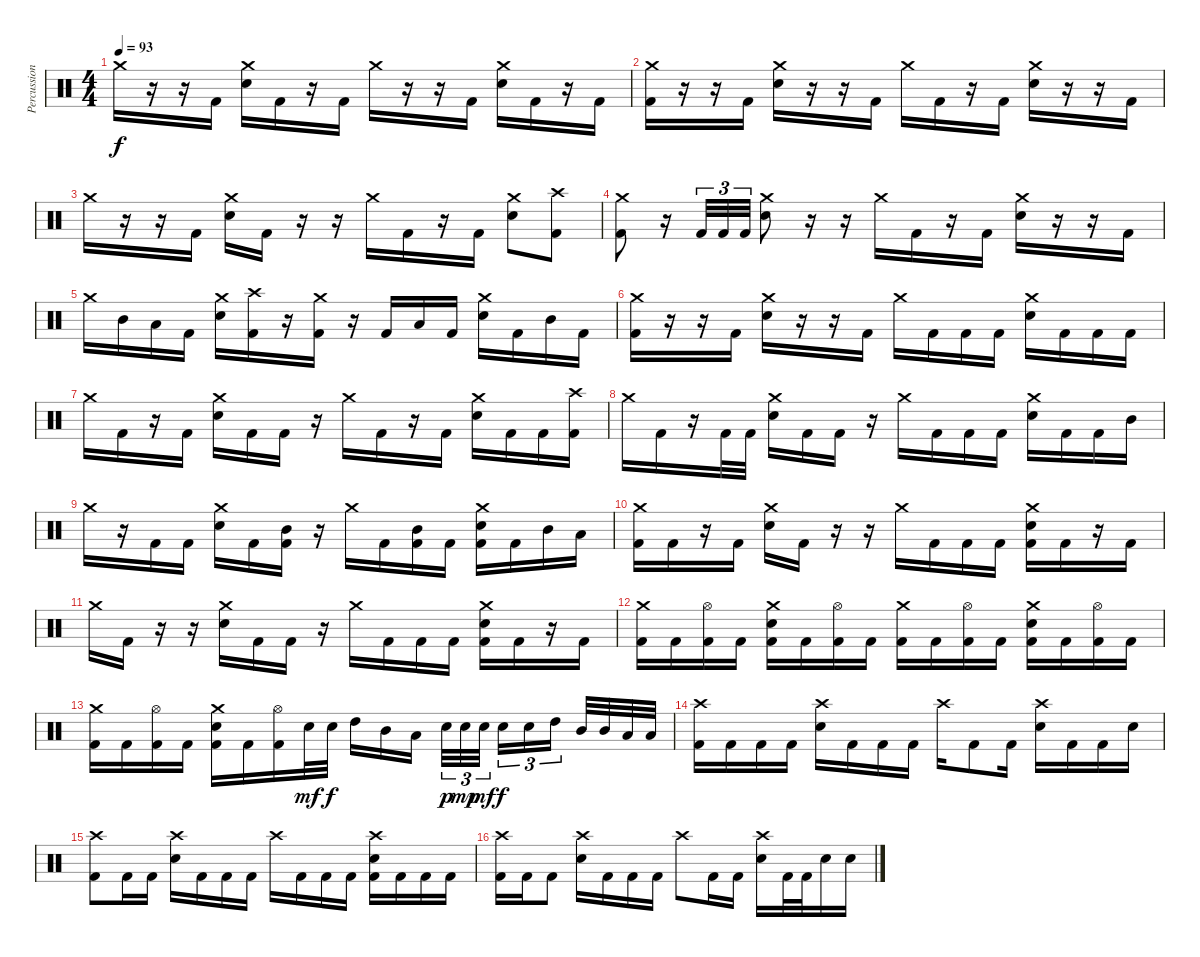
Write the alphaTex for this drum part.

\track ("Percussions" "Percussion") {instrument percussion}
\staff {score}
\articulation defaults
\ts (4 4)
\tempo 93
\clef neutral
\ks c "Crash medium (hit)".16{dy f}
r.16 r.16 "Kick (hit) 2".16 ("Crash medium (hit)" "Electric Snare (hit)").16 "Kick (hit) 2".16 r.16 "Kick (hit) 2".16 "Crash medium (hit)".16 r.16 r.16 "Kick (hit) 2".16 ("Crash medium (hit)" "Electric Snare (hit)").16 "Kick (hit) 2".16 r.16 "Kick (hit) 2".16 |
("Crash medium (hit)" "Kick (hit) 2").16 r.16 r.16 "Kick (hit) 2".16 ("Crash medium (hit)" "Electric Snare (hit)").16 r.16 r.16 "Kick (hit) 2".16 "Crash medium (hit)".16 "Kick (hit) 2".16 r.16 "Kick (hit) 2".16 ("Crash medium (hit)" "Electric Snare (hit)").16 r.16 r.16 "Kick (hit) 2".16 |
"Crash medium (hit)".16 r.16 r.16 "Kick (hit) 2".16 ("Crash medium (hit)" "Electric Snare (hit)").16 "Kick (hit) 2".16 r.16 r.16 "Crash medium (hit)".16 "Kick (hit) 2".16 r.16 "Kick (hit) 2".16 ("Crash medium (hit)" "Electric Snare (hit)").8 ("Crash high (hit)" "Kick (hit) 2").8 |
("Crash medium (hit)" "Kick (hit) 2").8 r.16 "Kick (hit) 2".32{tu (3 2)} "Kick (hit) 2".32{tu (3 2)} "Kick (hit) 2".32{tu (3 2)} ("Crash medium (hit)" "Electric Snare (hit)").8 r.16 r.16 "Crash medium (hit)".16 "Kick (hit) 2".16 r.16 "Kick (hit) 2".16 ("Crash medium (hit)" "Electric Snare (hit)").16 r.16 r.16 "Kick (hit) 2".16 |
"Crash medium (hit)".16 "Mid Tom (hit)".16 "Low Tom (hit)".16 "Kick (hit) 2".16 ("Crash medium (hit)" "Electric Snare (hit)").16 ("Crash high (hit)" "Kick (hit) 2").16 r.16 ("Crash medium (hit)" "Kick (hit) 2").16 r.16 "Kick (hit) 2".16 "Low Tom (hit)".16 "Kick (hit) 2".16 ("Crash medium (hit)" "Electric Snare (hit)").16 "Kick (hit) 2".16 "Mid Tom (hit)".16 "Kick (hit) 2".16 |
("Crash medium (hit)" "Kick (hit) 2").16 r.16 r.16 "Kick (hit) 2".16 ("Crash medium (hit)" "Electric Snare (hit)").16 r.16 r.16 "Kick (hit) 2".16 "Crash medium (hit)".16 "Kick (hit) 2".16 "Kick (hit) 2".16 "Kick (hit) 2".16 ("Crash medium (hit)" "Electric Snare (hit)").16 "Kick (hit) 2".16 "Kick (hit) 2".16 "Kick (hit) 2".16 |
"Crash medium (hit)".16 "Kick (hit) 2".16 r.16 "Kick (hit) 2".16 ("Crash medium (hit)" "Electric Snare (hit)").16 "Kick (hit) 2".16 "Kick (hit) 2".16 r.16 "Crash medium (hit)".16 "Kick (hit) 2".16 r.16 "Kick (hit) 2".16 ("Crash medium (hit)" "Electric Snare (hit)").16 "Kick (hit) 2".16 "Kick (hit) 2".16 ("Crash high (hit)" "Kick (hit) 2").16 |
"Crash medium (hit)".16 "Kick (hit) 2".16 r.16 "Kick (hit) 2".32 "Kick (hit) 2".32 ("Crash medium (hit)" "Electric Snare (hit)").16 "Kick (hit) 2".16 "Kick (hit) 2".16 r.16 "Crash medium (hit)".16 "Kick (hit) 2".16 "Kick (hit) 2".16 "Kick (hit) 2".16 ("Crash medium (hit)" "Electric Snare (hit)").16 "Kick (hit) 2".16 "Kick (hit) 2".16 "Mid Tom (hit)".16 |
"Crash medium (hit)".16 r.16 "Kick (hit) 2".16 "Kick (hit) 2".16 ("Crash medium (hit)" "Electric Snare (hit)").16 "Kick (hit) 2".16 ("Mid Tom (hit)" "Kick (hit) 2").16 r.16 "Crash medium (hit)".16 "Kick (hit) 2".16 ("Mid Tom (hit)" "Kick (hit) 2").16 "Kick (hit) 2".16 ("Crash medium (hit)" "Electric Snare (hit)" "Kick (hit) 2").16 "Kick (hit) 2".16 "Mid Tom (hit)".16 "Low Tom (hit)".16 |
("Crash medium (hit)" "Kick (hit) 2").16 "Kick (hit) 2".16 r.16 "Kick (hit) 2".16 ("Crash medium (hit)" "Electric Snare (hit)").16 "Kick (hit) 2".16 r.16 r.16 "Crash medium (hit)".16 "Kick (hit) 2".16 "Kick (hit) 2".16 "Kick (hit) 2".16 ("Crash medium (hit)" "Electric Snare (hit)" "Kick (hit) 2").16 "Kick (hit) 2".16 r.16 "Kick (hit) 2".16 |
"Crash medium (hit)".16 "Kick (hit) 2".16 r.16 r.16 ("Crash medium (hit)" "Electric Snare (hit)").16 "Kick (hit) 2".16 "Kick (hit) 2".16 r.16 "Crash medium (hit)".16 "Kick (hit) 2".16 "Kick (hit) 2".16 "Kick (hit) 2".16 ("Crash medium (hit)" "Electric Snare (hit)" "Kick (hit) 2").16 "Kick (hit) 2".16 r.16 "Kick (hit) 2".16 |
("Crash medium (hit)" "Kick (hit) 2").16 "Kick (hit) 2".16 ("Hi-Hat (open)" "Kick (hit) 2").16 "Kick (hit) 2".16 ("Crash medium (hit)" "Electric Snare (hit)" "Kick (hit) 2").16 "Kick (hit) 2".16 ("Hi-Hat (open)" "Kick (hit) 2").16 "Kick (hit) 2".16 ("Crash medium (hit)" "Kick (hit) 2").16 "Kick (hit) 2".16 ("Hi-Hat (open)" "Kick (hit) 2").16 "Kick (hit) 2".16 ("Crash medium (hit)" "Electric Snare (hit)" "Kick (hit) 2").16 "Kick (hit) 2".16 ("Hi-Hat (open)" "Kick (hit) 2").16 "Kick (hit) 2".16 |
("Crash medium (hit)" "Kick (hit) 2").16 "Kick (hit) 2".16 ("Hi-Hat (open)" "Kick (hit) 2").16 "Kick (hit) 2".16 ("Crash medium (hit)" "Electric Snare (hit)" "Kick (hit) 2").16 "Kick (hit) 2".16 ("Hi-Hat (open)" "Kick (hit) 2").16 "Electric Snare (hit)".32{dy mf} "Electric Snare (hit)".32{dy f} "High Tom (hit)".16 "Mid Tom (hit)".16 "Low Tom (hit)".16 "Electric Snare (hit)".32{tu (3 2) dy p} "Electric Snare (hit)".32{tu (3 2) dy mp} "Electric Snare (hit)".32{tu (3 2) dy mf} "Electric Snare (hit)".16{tu (3 2) dy f} "Electric Snare (hit)".16{tu (3 2)} "High Tom (hit)".16{tu (3 2)} "Mid Tom (hit)".32 "Mid Tom (hit)".32 "Low Tom (hit)".32 "Low Tom (hit)".32 |
("Crash high (hit)" "Kick (hit) 2").16 "Kick (hit) 2".16 "Kick (hit) 2".16 "Kick (hit) 2".16 ("Crash high (hit)" "Electric Snare (hit)").16 "Kick (hit) 2".16 "Kick (hit) 2".16 "Kick (hit) 2".16 "Crash high (hit)".16 "Kick (hit) 2".8 "Kick (hit) 2".16 ("Crash high (hit)" "Electric Snare (hit)").16 "Kick (hit) 2".16 "Kick (hit) 2".16 "Electric Snare (hit)".16 |
("Crash high (hit)" "Kick (hit) 2").8 "Kick (hit) 2".16 "Kick (hit) 2".16 ("Crash high (hit)" "Electric Snare (hit)").16 "Kick (hit) 2".16 "Kick (hit) 2".16 "Kick (hit) 2".16 "Crash high (hit)".16 "Kick (hit) 2".16 "Kick (hit) 2".16 "Kick (hit) 2".16 ("Crash high (hit)" "Electric Snare (hit)" "Kick (hit) 2").16 "Kick (hit) 2".16 "Kick (hit) 2".16 "Kick (hit) 2".16 |
("Crash high (hit)" "Kick (hit) 2").16 "Kick (hit) 2".16 "Kick (hit) 2".8 ("Crash high (hit)" "Electric Snare (hit)").16 "Kick (hit) 2".16 "Kick (hit) 2".16 "Kick (hit) 2".16 "Crash high (hit)".8 "Kick (hit) 2".16 "Kick (hit) 2".16 ("Crash high (hit)" "Electric Snare (hit)").16 "Kick (hit) 2".32 "Kick (hit) 2".32 "Electric Snare (hit)".16 "Electric Snare (hit)".16
